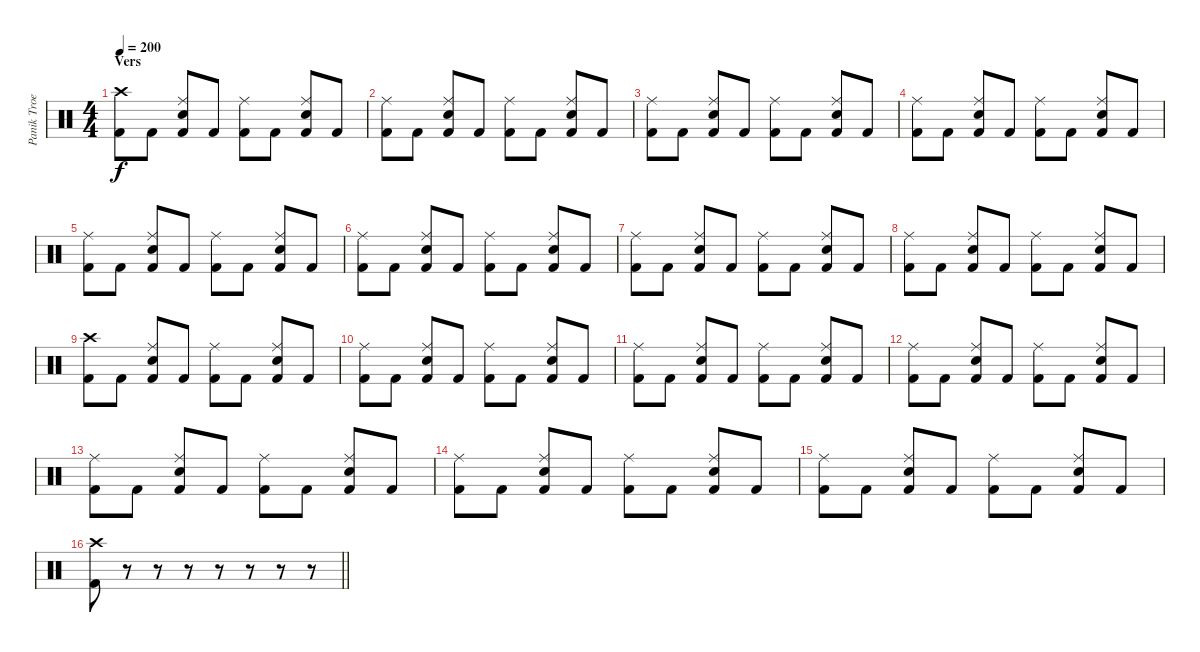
\track ("Panik Troels ( Dengang )" "Panik Troe") {instrument percussion}
\staff {score}
\articulation defaults
\ts (4 4)
\section ("" "Vers ")
\tempo 200
\clef neutral
\ks c
("Kick (hit) 2" "Crash high (hit)").8{dy f} "Kick (hit) 2".8 ("Kick (hit) 2" "Ride (middle)" "Snare (hit) 2").8 "Kick (hit) 2".8 ("Kick (hit) 2" "Ride (middle)").8 "Kick (hit) 2".8 ("Kick (hit) 2" "Ride (middle)" "Snare (hit) 2").8 "Kick (hit) 2".8 |
("Kick (hit) 2" "Ride (middle)").8 "Kick (hit) 2".8 ("Kick (hit) 2" "Ride (middle)" "Snare (hit) 2").8 "Kick (hit) 2".8 ("Kick (hit) 2" "Ride (middle)").8 "Kick (hit) 2".8 ("Kick (hit) 2" "Ride (middle)" "Snare (hit) 2").8 "Kick (hit) 2".8 |
("Kick (hit) 2" "Ride (middle)").8 "Kick (hit) 2".8 ("Kick (hit) 2" "Ride (middle)" "Snare (hit) 2").8 "Kick (hit) 2".8 ("Kick (hit) 2" "Ride (middle)").8 "Kick (hit) 2".8 ("Kick (hit) 2" "Ride (middle)" "Snare (hit) 2").8 "Kick (hit) 2".8 |
("Kick (hit) 2" "Ride (middle)").8 "Kick (hit) 2".8 ("Kick (hit) 2" "Ride (middle)" "Snare (hit) 2").8 "Kick (hit) 2".8 ("Kick (hit) 2" "Ride (middle)").8 "Kick (hit) 2".8 ("Kick (hit) 2" "Ride (middle)" "Snare (hit) 2").8 "Kick (hit) 2".8 |
("Kick (hit) 2" "Ride (middle)").8 "Kick (hit) 2".8 ("Kick (hit) 2" "Ride (middle)" "Snare (hit) 2").8 "Kick (hit) 2".8 ("Kick (hit) 2" "Ride (middle)").8 "Kick (hit) 2".8 ("Kick (hit) 2" "Ride (middle)" "Snare (hit) 2").8 "Kick (hit) 2".8 |
("Kick (hit) 2" "Ride (middle)").8 "Kick (hit) 2".8 ("Kick (hit) 2" "Ride (middle)" "Snare (hit) 2").8 "Kick (hit) 2".8 ("Kick (hit) 2" "Ride (middle)").8 "Kick (hit) 2".8 ("Kick (hit) 2" "Ride (middle)" "Snare (hit) 2").8 "Kick (hit) 2".8 |
("Kick (hit) 2" "Ride (middle)").8 "Kick (hit) 2".8 ("Kick (hit) 2" "Ride (middle)" "Snare (hit) 2").8 "Kick (hit) 2".8 ("Kick (hit) 2" "Ride (middle)").8 "Kick (hit) 2".8 ("Kick (hit) 2" "Ride (middle)" "Snare (hit) 2").8 "Kick (hit) 2".8 |
("Kick (hit) 2" "Ride (middle)").8 "Kick (hit) 2".8 ("Kick (hit) 2" "Ride (middle)" "Snare (hit) 2").8 "Kick (hit) 2".8 ("Kick (hit) 2" "Ride (middle)").8 "Kick (hit) 2".8 ("Kick (hit) 2" "Ride (middle)" "Snare (hit) 2").8 "Kick (hit) 2".8 |
("Kick (hit) 2" "Crash high (hit)").8 "Kick (hit) 2".8 ("Kick (hit) 2" "Ride (middle)" "Snare (hit) 2").8 "Kick (hit) 2".8 ("Kick (hit) 2" "Ride (middle)").8 "Kick (hit) 2".8 ("Kick (hit) 2" "Ride (middle)" "Snare (hit) 2").8 "Kick (hit) 2".8 |
("Kick (hit) 2" "Ride (middle)").8 "Kick (hit) 2".8 ("Kick (hit) 2" "Ride (middle)" "Snare (hit) 2").8 "Kick (hit) 2".8 ("Kick (hit) 2" "Ride (middle)").8 "Kick (hit) 2".8 ("Kick (hit) 2" "Ride (middle)" "Snare (hit) 2").8 "Kick (hit) 2".8 |
("Kick (hit) 2" "Ride (middle)").8 "Kick (hit) 2".8 ("Kick (hit) 2" "Ride (middle)" "Snare (hit) 2").8 "Kick (hit) 2".8 ("Kick (hit) 2" "Ride (middle)").8 "Kick (hit) 2".8 ("Kick (hit) 2" "Ride (middle)" "Snare (hit) 2").8 "Kick (hit) 2".8 |
("Kick (hit) 2" "Ride (middle)").8 "Kick (hit) 2".8 ("Kick (hit) 2" "Ride (middle)" "Snare (hit) 2").8 "Kick (hit) 2".8 ("Kick (hit) 2" "Ride (middle)").8 "Kick (hit) 2".8 ("Kick (hit) 2" "Ride (middle)" "Snare (hit) 2").8 "Kick (hit) 2".8 |
("Kick (hit) 2" "Ride (middle)").8 "Kick (hit) 2".8 ("Kick (hit) 2" "Ride (middle)" "Snare (hit) 2").8 "Kick (hit) 2".8 ("Kick (hit) 2" "Ride (middle)").8 "Kick (hit) 2".8 ("Kick (hit) 2" "Ride (middle)" "Snare (hit) 2").8 "Kick (hit) 2".8 |
("Kick (hit) 2" "Ride (middle)").8 "Kick (hit) 2".8 ("Kick (hit) 2" "Ride (middle)" "Snare (hit) 2").8 "Kick (hit) 2".8 ("Kick (hit) 2" "Ride (middle)").8 "Kick (hit) 2".8 ("Kick (hit) 2" "Ride (middle)" "Snare (hit) 2").8 "Kick (hit) 2".8 |
("Kick (hit) 2" "Ride (middle)").8 "Kick (hit) 2".8 ("Kick (hit) 2" "Ride (middle)" "Snare (hit) 2").8 "Kick (hit) 2".8 ("Kick (hit) 2" "Ride (middle)").8 "Kick (hit) 2".8 ("Kick (hit) 2" "Ride (middle)" "Snare (hit) 2").8 "Kick (hit) 2".8 |
\barLineRight lightlight
("Kick (hit) 2" "Crash high (hit)").8 r.8 r.8 r.8 r.8 r.8 r.8 r.8
